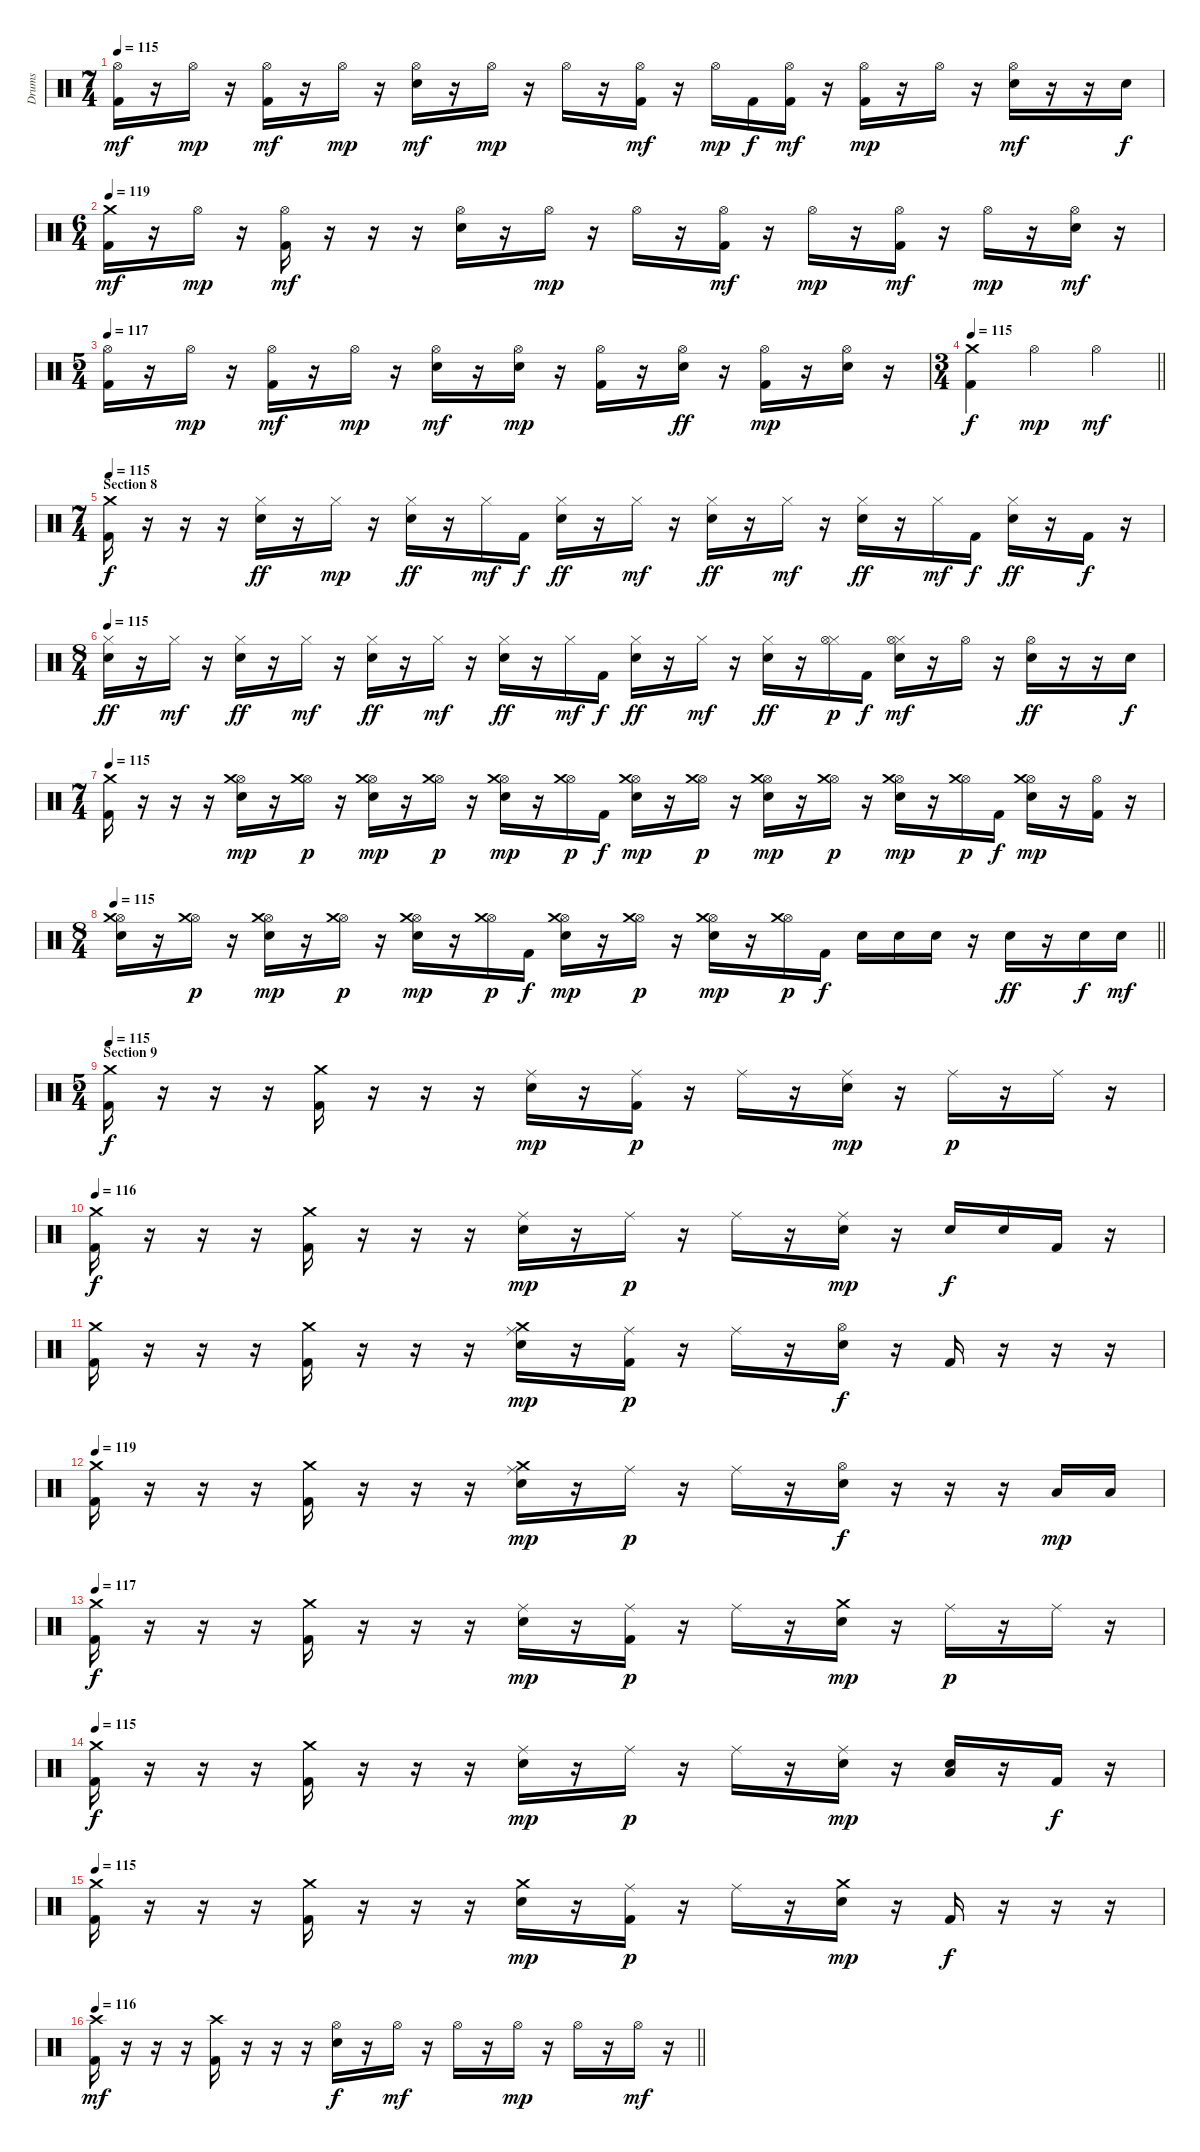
\track ("Drums" "Drums") {instrument percussion}
\staff {score}
\articulation defaults
\ts (7 4)
\tempo 115
\clef neutral
\ks c
("Hi-Hat (open)" "Kick (hit) 2").16{dy mf} r.16 "Hi-Hat (open)".16{dy mp} r.16 ("Hi-Hat (open)" "Kick (hit) 2").16{dy mf} r.16 "Hi-Hat (open)".16{dy mp} r.16 ("Hi-Hat (open)" "Electric Snare (hit)").16{dy mf} r.16 "Hi-Hat (open)".16{dy mp} r.16 "Hi-Hat (open)".16 r.16 ("Hi-Hat (open)" "Kick (hit) 2").16{dy mf} r.16 "Hi-Hat (open)".16{dy mp} "Kick (hit) 2".16{dy f} ("Hi-Hat (open)" "Kick (hit) 2").16{dy mf} r.16 ("Hi-Hat (open)" "Kick (hit) 2").16{dy mp} r.16 "Hi-Hat (open)".16 r.16 ("Hi-Hat (open)" "Electric Snare (hit)").16{dy mf} r.16 r.16 "Electric Snare (hit)".16{dy f} |
\ts (6 4)
\tempo 119
("Crash medium (hit)" "Kick (hit) 2").16{dy mf} r.16 "Hi-Hat (open)".16{dy mp} r.16 ("Hi-Hat (open)" "Kick (hit) 2").16{dy mf} r.16 r.16 r.16 ("Hi-Hat (open)" "Electric Snare (hit)").16 r.16 "Hi-Hat (open)".16{dy mp} r.16 "Hi-Hat (open)".16 r.16 ("Hi-Hat (open)" "Kick (hit) 2").16{dy mf} r.16 "Hi-Hat (open)".16{dy mp} r.16 ("Hi-Hat (open)" "Kick (hit) 2").16{dy mf} r.16 "Hi-Hat (open)".16{dy mp} r.16 ("Hi-Hat (open)" "Electric Snare (hit)").16{dy mf} r.16 |
\ts (5 4)
\tempo 117
("Hi-Hat (open)" "Kick (hit) 2").16 r.16 "Hi-Hat (open)".16{dy mp} r.16 ("Hi-Hat (open)" "Kick (hit) 2").16{dy mf} r.16 "Hi-Hat (open)".16{dy mp} r.16 ("Hi-Hat (open)" "Electric Snare (hit)").16{dy mf} r.16 ("Hi-Hat (open)" "Electric Snare (hit)").16{dy mp} r.16 ("Hi-Hat (open)" "Kick (hit) 2").16 r.16 ("Hi-Hat (open)" "Electric Snare (hit)").16{dy ff} r.16 ("Hi-Hat (open)" "Kick (hit) 2").16{dy mp} r.16 ("Hi-Hat (open)" "Electric Snare (hit)").16 r.16 |
\ts (3 4)
\tempo 115
\barLineRight lightlight
("Crash medium (hit)" "Kick (hit) 2").4{dy f} "Hi-Hat (open)".4{dy mp} "Hi-Hat (open)".4{dy mf} |
\ts (7 4)
\section ("" "Section 8")
\tempo 115
("Crash medium (hit)" "Kick (hit) 2").16{dy f} r.16 r.16 r.16 ("Hi-Hat (closed)" "Electric Snare (hit)").16{dy ff} r.16 "Hi-Hat (closed)".16{dy mp} r.16 ("Hi-Hat (closed)" "Electric Snare (hit)").16{dy ff} r.16 "Hi-Hat (closed)".16{dy mf} "Kick (hit) 2".16{dy f} ("Hi-Hat (closed)" "Electric Snare (hit)").16{dy ff} r.16 "Hi-Hat (closed)".16{dy mf} r.16 ("Hi-Hat (closed)" "Electric Snare (hit)").16{dy ff} r.16 "Hi-Hat (closed)".16{dy mf} r.16 ("Hi-Hat (closed)" "Electric Snare (hit)").16{dy ff} r.16 "Hi-Hat (closed)".16{dy mf} "Kick (hit) 2".16{dy f} ("Hi-Hat (closed)" "Electric Snare (hit)").16{dy ff} r.16 "Kick (hit) 2".16{dy f} r.16 |
\ts (8 4)
\tempo 115
("Hi-Hat (closed)" "Electric Snare (hit)").16{dy ff} r.16 "Hi-Hat (closed)".16{dy mf} r.16 ("Hi-Hat (closed)" "Electric Snare (hit)").16{dy ff} r.16 "Hi-Hat (closed)".16{dy mf} r.16 ("Hi-Hat (closed)" "Electric Snare (hit)").16{dy ff} r.16 "Hi-Hat (closed)".16{dy mf} r.16 ("Hi-Hat (closed)" "Electric Snare (hit)").16{dy ff} r.16 "Hi-Hat (closed)".16{dy mf} "Kick (hit) 2".16{dy f} ("Hi-Hat (closed)" "Electric Snare (hit)").16{dy ff} r.16 "Hi-Hat (closed)".16{dy mf} r.16 ("Hi-Hat (closed)" "Electric Snare (hit)").16{dy ff} r.16 ("Hi-Hat (closed)" "Hi-Hat (open)").16{dy p} "Kick (hit) 2".16{dy f} ("Hi-Hat (closed)" "Hi-Hat (open)" "Electric Snare (hit)").16{dy mf} r.16 "Hi-Hat (open)".16 r.16 ("Hi-Hat (open)" "Electric Snare (hit)").16{dy ff} r.16 r.16 "Electric Snare (hit)".16{dy f} |
\ts (7 4)
\tempo 115
("Crash medium (hit)" "Kick (hit) 2").16 r.16 r.16 r.16 ("Hi-Hat (open)" "Crash medium (hit)" "Electric Snare (hit)").16{dy mp} r.16 ("Hi-Hat (open)" "Crash medium (hit)").16{dy p} r.16 ("Hi-Hat (open)" "Crash medium (hit)" "Electric Snare (hit)").16{dy mp} r.16 ("Hi-Hat (open)" "Crash medium (hit)").16{dy p} r.16 ("Hi-Hat (open)" "Crash medium (hit)" "Electric Snare (hit)").16{dy mp} r.16 ("Hi-Hat (open)" "Crash medium (hit)").16{dy p} "Kick (hit) 2".16{dy f} ("Hi-Hat (open)" "Crash medium (hit)" "Electric Snare (hit)").16{dy mp} r.16 ("Hi-Hat (open)" "Crash medium (hit)").16{dy p} r.16 ("Hi-Hat (open)" "Crash medium (hit)" "Electric Snare (hit)").16{dy mp} r.16 ("Hi-Hat (open)" "Crash medium (hit)").16{dy p} r.16 ("Hi-Hat (open)" "Crash medium (hit)" "Electric Snare (hit)").16{dy mp} r.16 ("Hi-Hat (open)" "Crash medium (hit)").16{dy p} "Kick (hit) 2".16{dy f} ("Hi-Hat (open)" "Crash medium (hit)" "Electric Snare (hit)").16{dy mp} r.16 ("Hi-Hat (open)" "Kick (hit) 2").16 r.16 |
\ts (8 4)
\tempo 115
\barLineRight lightlight
("Hi-Hat (open)" "Crash medium (hit)" "Electric Snare (hit)").16 r.16 ("Hi-Hat (open)" "Crash medium (hit)").16{dy p} r.16 ("Hi-Hat (open)" "Crash medium (hit)" "Electric Snare (hit)").16{dy mp} r.16 ("Hi-Hat (open)" "Crash medium (hit)").16{dy p} r.16 ("Hi-Hat (open)" "Crash medium (hit)" "Electric Snare (hit)").16{dy mp} r.16 ("Hi-Hat (open)" "Crash medium (hit)").16{dy p} "Kick (hit) 2".16{dy f} ("Hi-Hat (open)" "Crash medium (hit)" "Electric Snare (hit)").16{dy mp} r.16 ("Hi-Hat (open)" "Crash medium (hit)").16{dy p} r.16 ("Hi-Hat (open)" "Crash medium (hit)" "Electric Snare (hit)").16{dy mp} r.16 ("Hi-Hat (open)" "Crash medium (hit)").16{dy p} "Kick (hit) 2".16{dy f} "Electric Snare (hit)".16 "Electric Snare (hit)".16 "Electric Snare (hit)".16 r.16 "Electric Snare (hit)".16{dy ff} r.16 "Electric Snare (hit)".16{dy f} "Electric Snare (hit)".16{dy mf} |
\ts (5 4)
\section ("" "Section 9")
\tempo 115
("Crash medium (hit)" "Kick (hit) 2").16{dy f} r.16 r.16 r.16 ("Crash medium (hit)" "Kick (hit) 2").16 r.16 r.16 r.16 ("Ride (middle)" "Electric Snare (hit)").16{dy mp} r.16 ("Ride (middle)" "Kick (hit) 2").16{dy p} r.16 "Ride (middle)".16 r.16 ("Ride (middle)" "Electric Snare (hit)").16{dy mp} r.16 "Ride (middle)".16{dy p} r.16 "Ride (middle)".16 r.16 |
\tempo 116
("Crash medium (hit)" "Kick (hit) 2").16{dy f} r.16 r.16 r.16 ("Crash medium (hit)" "Kick (hit) 2").16 r.16 r.16 r.16 ("Ride (middle)" "Electric Snare (hit)").16{dy mp} r.16 "Ride (middle)".16{dy p} r.16 "Ride (middle)".16 r.16 ("Ride (middle)" "Electric Snare (hit)").16{dy mp} r.16 "Electric Snare (hit)".16{dy f} "Electric Snare (hit)".16 "Kick (hit) 2".16 r.16 |
("Crash medium (hit)" "Kick (hit) 2").16 r.16 r.16 r.16 ("Crash medium (hit)" "Kick (hit) 2").16 r.16 r.16 r.16 ("Ride (middle)" "Crash medium (hit)" "Electric Snare (hit)").16{dy mp} r.16 ("Ride (middle)" "Kick (hit) 2").16{dy p} r.16 "Ride (middle)".16 r.16 ("Hi-Hat (open)" "Electric Snare (hit)").16{dy f} r.16 "Kick (hit) 2".16 r.16 r.16 r.16 |
\tempo 119
("Crash medium (hit)" "Kick (hit) 2").16 r.16 r.16 r.16 ("Crash medium (hit)" "Kick (hit) 2").16 r.16 r.16 r.16 ("Ride (middle)" "Crash medium (hit)" "Electric Snare (hit)").16{dy mp} r.16 "Ride (middle)".16{dy p} r.16 "Ride (middle)".16 r.16 ("Hi-Hat (open)" "Electric Snare (hit)").16{dy f} r.16 r.16 r.16 "Low Tom (hit)".16{dy mp} "Low Tom (hit)".16 |
\tempo 117
("Crash medium (hit)" "Kick (hit) 2").16{dy f} r.16 r.16 r.16 ("Crash medium (hit)" "Kick (hit) 2").16 r.16 r.16 r.16 ("Ride (middle)" "Electric Snare (hit)").16{dy mp} r.16 ("Ride (middle)" "Kick (hit) 2").16{dy p} r.16 "Ride (middle)".16 r.16 ("Crash medium (hit)" "Electric Snare (hit)").16{dy mp} r.16 "Ride (middle)".16{dy p} r.16 "Ride (middle)".16 r.16 |
\tempo 115
("Crash medium (hit)" "Kick (hit) 2").16{dy f} r.16 r.16 r.16 ("Crash medium (hit)" "Kick (hit) 2").16 r.16 r.16 r.16 ("Ride (middle)" "Electric Snare (hit)").16{dy mp} r.16 "Ride (middle)".16{dy p} r.16 "Ride (middle)".16 r.16 ("Ride (middle)" "Electric Snare (hit)").16{dy mp} r.16 ("Electric Snare (hit)" "Low Tom (hit)").16 r.16 "Kick (hit) 2".16{dy f} r.16 |
\tempo 115
("Crash medium (hit)" "Kick (hit) 2").16 r.16 r.16 r.16 ("Crash medium (hit)" "Kick (hit) 2").16 r.16 r.16 r.16 ("Crash medium (hit)" "Electric Snare (hit)").16{dy mp} r.16 ("Ride (middle)" "Kick (hit) 2").16{dy p} r.16 "Ride (middle)".16 r.16 ("Crash medium (hit)" "Electric Snare (hit)").16{dy mp} r.16 "Kick (hit) 2".16{dy f} r.16 r.16 r.16 |
\tempo 116
\barLineRight lightlight
("Crash high (hit)" "Kick (hit) 2").16{dy mf} r.16 r.16 r.16 ("Crash high (hit)" "Kick (hit) 2").16 r.16 r.16 r.16 ("Hi-Hat (open)" "Electric Snare (hit)").16{dy f} r.16 "Hi-Hat (open)".16{dy mf} r.16 "Hi-Hat (open)".16 r.16 "Hi-Hat (open)".16{dy mp} r.16 "Hi-Hat (open)".16 r.16 "Hi-Hat (open)".16{dy mf} r.16
